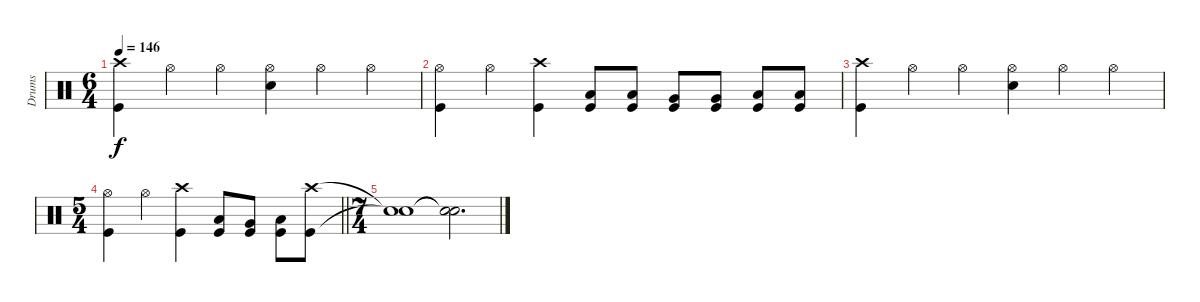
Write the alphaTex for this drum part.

\track ("Drums" "Drums") {instrument percussion}
\staff {score}
\articulation defaults
\ts (6 4)
\tempo 146
\clef neutral
\ks c
("Crash high (hit)" "Kick (hit)").4{dy f} "Hi-Hat (open)".4 "Hi-Hat (open)".4 ("Hi-Hat (open)" "Snare (hit) 2").4 "Hi-Hat (open)".4 "Hi-Hat (open)".4 |
("Hi-Hat (open)" "Kick (hit)").4 "Hi-Hat (open)".4 ("Crash high (hit)" "Kick (hit)").4 ("Low Tom (hit)" "Kick (hit)").8 ("Low Tom (hit)" "Kick (hit)").8 ("Very Low Tom (hit)" "Kick (hit)").8 ("Very Low Tom (hit)" "Kick (hit)").8 ("Low Floor Tom (hit)" "Kick (hit)").8 ("Low Floor Tom (hit)" "Kick (hit)").8 |
("Crash high (hit)" "Kick (hit)").4 "Hi-Hat (open)".4 "Hi-Hat (open)".4 ("Hi-Hat (open)" "Snare (hit) 2").4 "Hi-Hat (open)".4 "Hi-Hat (open)".4 |
\ts (5 4)
\barLineRight lightlight
("Hi-Hat (open)" "Kick (hit)").4 "Hi-Hat (open)".4 ("Crash high (hit)" "Kick (hit)").4 ("Low Tom (hit)" "Kick (hit)").8 ("Very Low Tom (hit)" "Kick (hit)").8 ("Low Floor Tom (hit)" "Kick (hit)").8 ("Crash high (hit)" "Kick (hit)").8 |
\ts (7 4)
("Snare (hit)"{t} "Snare (hit)"{t}).1 ("Snare (hit)"{t} "Snare (hit)"{t}).2{d}
